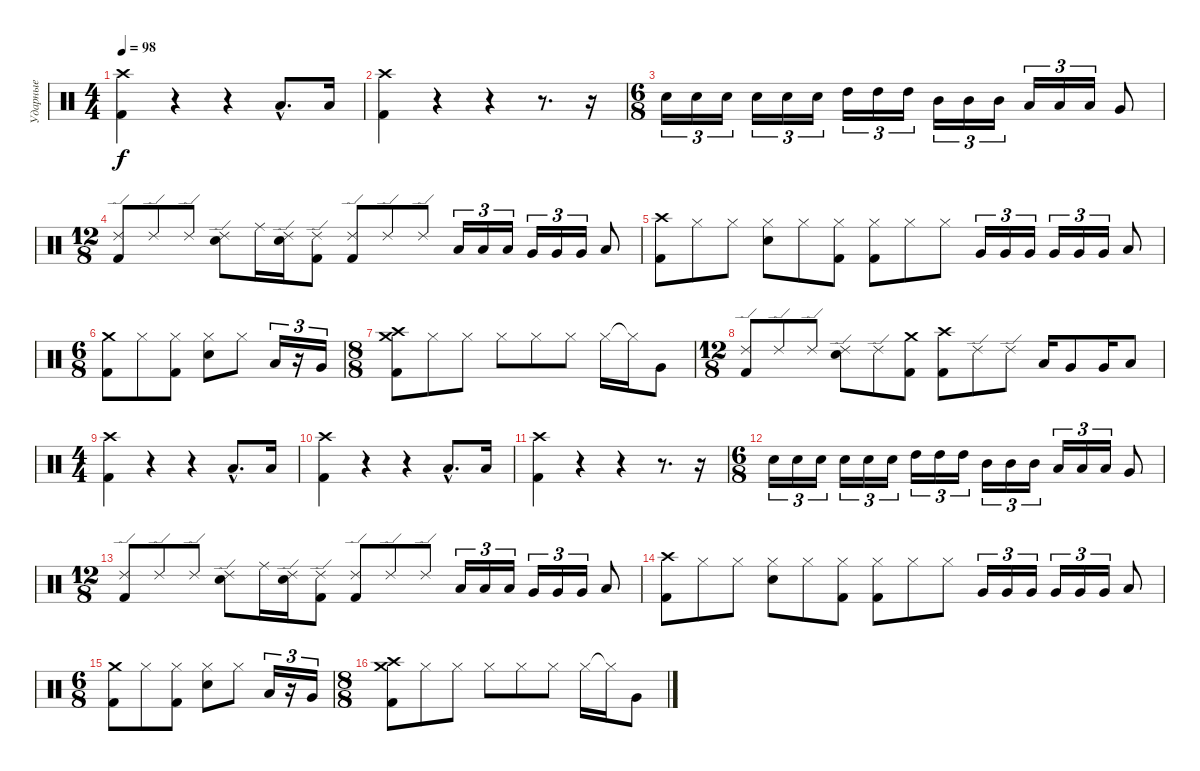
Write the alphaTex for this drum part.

\track ("Ударные" "Ударные") {instrument percussion}
\staff {score}
\articulation defaults
\ts (4 4)
\tempo 98
\clef neutral
\ks c
("Crash high (hit)" "Kick (hit) 2").4{dy f} r.4 r.4 "Low Tom (hit)"{hac}.8{d} "Low Tom (hit)".16 |
("Crash high (hit)" "Kick (hit) 2").4 r.4 r.4 r.8{d} r.16 |
\ts (6 8)
"Snare (hit) 2".16{tu (3 2)} "Snare (hit) 2".16{tu (3 2)} "Snare (hit) 2".16{tu (3 2)} "Snare (hit) 2".16{tu (3 2)} "Snare (hit) 2".16{tu (3 2)} "Snare (hit) 2".16{tu (3 2)} "High Tom (hit)".16{tu (3 2)} "High Tom (hit)".16{tu (3 2)} "High Tom (hit)".16{tu (3 2)} "Mid Tom (hit)".16{tu (3 2)} "Mid Tom (hit)".16{tu (3 2)} "Mid Tom (hit)".16{tu (3 2)} "Low Tom (hit)".16{tu (3 2)} "Low Tom (hit)".16{tu (3 2)} "Low Tom (hit)".16{tu (3 2)} "Very Low Tom (hit)".8 |
\ts (12 8)
("Ride (edge) 2" "Kick (hit) 2").8 "Ride (edge) 2".8 "Ride (edge) 2".8 ("Ride (edge) 2" "Snare (hit) 2").8 "Ride (middle)".16 ("Ride (edge) 2" "Snare (hit) 2").16 ("Ride (edge) 2" "Kick (hit) 2").8 ("Ride (edge) 2" "Kick (hit) 2").8 "Ride (edge) 2".8 "Ride (edge) 2".8 "Low Tom (hit)".16{tu (3 2)} "Low Tom (hit)".16{tu (3 2)} "Low Tom (hit)".16{tu (3 2)} "Very Low Tom (hit)".16{tu (3 2)} "Very Low Tom (hit)".16{tu (3 2)} "Very Low Tom (hit)".16{tu (3 2)} "Low Floor Tom (hit)".8 |
("Crash high (hit)" "Kick (hit) 2").8 "Hi-Hat (closed)".8 "Hi-Hat (closed)".8 ("Hi-Hat (closed)" "Snare (hit) 2").8 "Hi-Hat (closed)".8 ("Hi-Hat (closed)" "Kick (hit) 2").8 ("Hi-Hat (closed)" "Kick (hit) 2").8 "Hi-Hat (closed)".8 "Hi-Hat (closed)".8 "Very Low Tom (hit)".16{tu (3 2)} "Very Low Tom (hit)".16{tu (3 2)} "Very Low Tom (hit)".16{tu (3 2)} "Very Low Tom (hit)".16{tu (3 2)} "Very Low Tom (hit)".16{tu (3 2)} "Very Low Tom (hit)".16{tu (3 2)} "Low Floor Tom (hit)".8 |
\ts (6 8)
("Crash medium (hit)" "Kick (hit) 2").8 "Hi-Hat (closed)".8 ("Hi-Hat (closed)" "Kick (hit) 2").8 ("Hi-Hat (closed)" "Snare (hit) 2").8 "Hi-Hat (closed)".8 "Low Tom (hit)".16{tu (3 2)} r.16{tu (3 2)} "Very Low Tom (hit)".16{tu (3 2)} |
\ts (8 8)
("Crash high (hit)" "Crash medium (hit)" "Kick (hit) 2").8 "Hi-Hat (closed)".8 "Hi-Hat (closed)".8 "Hi-Hat (closed)".8 "Hi-Hat (closed)".8 "Hi-Hat (closed)".8 "Hi-Hat (closed)".16 "Hi-Hat (closed)"{t}.16 "Very Low Tom (hit)".8 |
\ts (12 8)
("Ride (edge) 2" "Kick (hit) 2").8 "Ride (edge) 2".8 "Ride (edge) 2".8 ("Ride (edge) 2" "Snare (hit) 2").8 "Ride (edge) 2".8 ("Crash medium (hit)" "Kick (hit) 2").8 ("Crash high (hit)" "Kick (hit) 2").8 "Ride (edge) 2".8 "Ride (edge) 2".8 "Low Tom (hit)".16 "Very Low Tom (hit)".8 "Very Low Tom (hit)".16 "Low Floor Tom (hit)".8 |
\ts (4 4)
("Crash high (hit)" "Kick (hit) 2").4 r.4 r.4 "Low Tom (hit)"{hac}.8{d} "Low Tom (hit)".16 |
("Crash high (hit)" "Kick (hit) 2").4 r.4 r.4 "Low Tom (hit)"{hac}.8{d} "Low Tom (hit)".16 |
("Crash high (hit)" "Kick (hit) 2").4 r.4 r.4 r.8{d} r.16 |
\ts (6 8)
"Snare (hit) 2".16{tu (3 2)} "Snare (hit) 2".16{tu (3 2)} "Snare (hit) 2".16{tu (3 2)} "Snare (hit) 2".16{tu (3 2)} "Snare (hit) 2".16{tu (3 2)} "Snare (hit) 2".16{tu (3 2)} "High Tom (hit)".16{tu (3 2)} "High Tom (hit)".16{tu (3 2)} "High Tom (hit)".16{tu (3 2)} "Mid Tom (hit)".16{tu (3 2)} "Mid Tom (hit)".16{tu (3 2)} "Mid Tom (hit)".16{tu (3 2)} "Low Tom (hit)".16{tu (3 2)} "Low Tom (hit)".16{tu (3 2)} "Low Tom (hit)".16{tu (3 2)} "Very Low Tom (hit)".8 |
\ts (12 8)
("Ride (edge) 2" "Kick (hit) 2").8 "Ride (edge) 2".8 "Ride (edge) 2".8 ("Ride (edge) 2" "Snare (hit) 2").8 "Ride (middle)".16 ("Ride (edge) 2" "Snare (hit) 2").16 ("Ride (edge) 2" "Kick (hit) 2").8 ("Ride (edge) 2" "Kick (hit) 2").8 "Ride (edge) 2".8 "Ride (edge) 2".8 "Low Tom (hit)".16{tu (3 2)} "Low Tom (hit)".16{tu (3 2)} "Low Tom (hit)".16{tu (3 2)} "Very Low Tom (hit)".16{tu (3 2)} "Very Low Tom (hit)".16{tu (3 2)} "Very Low Tom (hit)".16{tu (3 2)} "Low Floor Tom (hit)".8 |
("Crash high (hit)" "Kick (hit) 2").8 "Hi-Hat (closed)".8 "Hi-Hat (closed)".8 ("Hi-Hat (closed)" "Snare (hit) 2").8 "Hi-Hat (closed)".8 ("Hi-Hat (closed)" "Kick (hit) 2").8 ("Hi-Hat (closed)" "Kick (hit) 2").8 "Hi-Hat (closed)".8 "Hi-Hat (closed)".8 "Very Low Tom (hit)".16{tu (3 2)} "Very Low Tom (hit)".16{tu (3 2)} "Very Low Tom (hit)".16{tu (3 2)} "Very Low Tom (hit)".16{tu (3 2)} "Very Low Tom (hit)".16{tu (3 2)} "Very Low Tom (hit)".16{tu (3 2)} "Low Floor Tom (hit)".8 |
\ts (6 8)
("Crash medium (hit)" "Kick (hit) 2").8 "Hi-Hat (closed)".8 ("Hi-Hat (closed)" "Kick (hit) 2").8 ("Hi-Hat (closed)" "Snare (hit) 2").8 "Hi-Hat (closed)".8 "Low Tom (hit)".16{tu (3 2)} r.16{tu (3 2)} "Very Low Tom (hit)".16{tu (3 2)} |
\ts (8 8)
("Crash high (hit)" "Crash medium (hit)" "Kick (hit) 2").8 "Hi-Hat (closed)".8 "Hi-Hat (closed)".8 "Hi-Hat (closed)".8 "Hi-Hat (closed)".8 "Hi-Hat (closed)".8 "Hi-Hat (closed)".16 "Hi-Hat (closed)"{t}.16 "Very Low Tom (hit)".8
